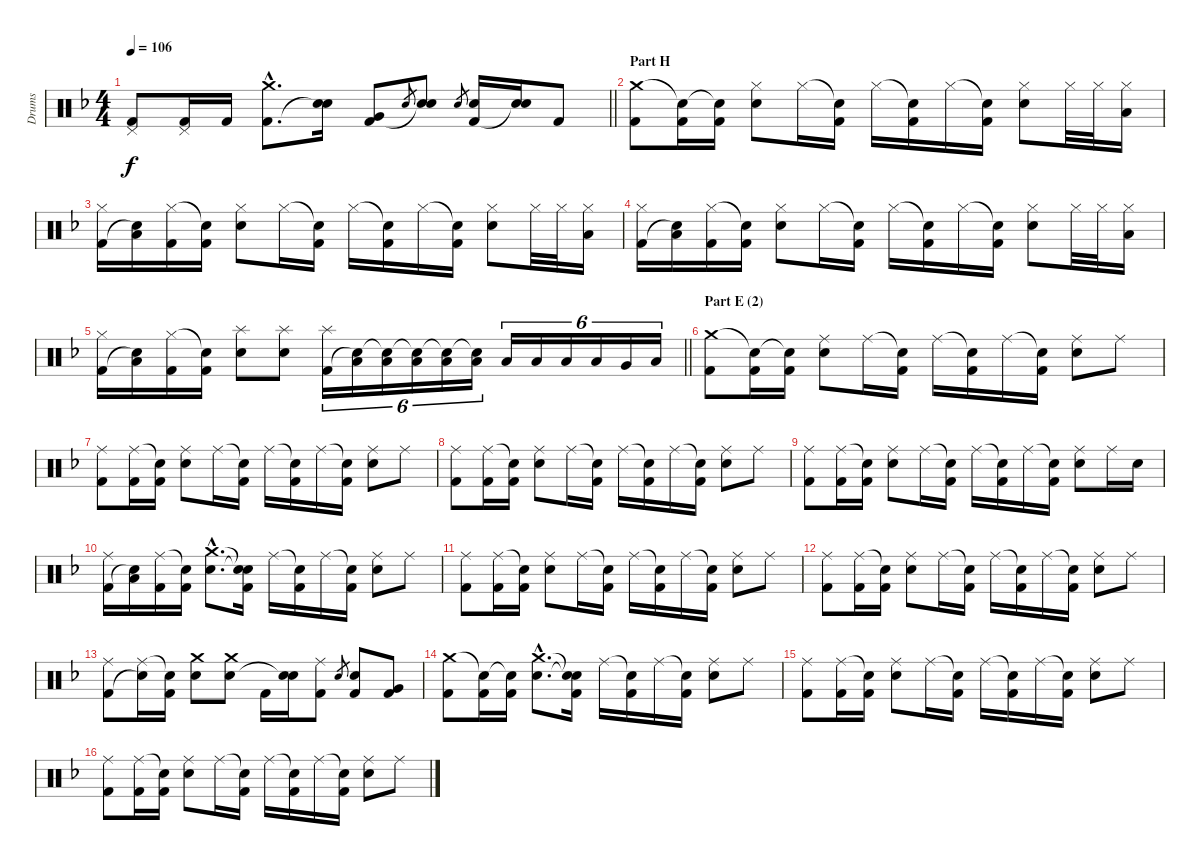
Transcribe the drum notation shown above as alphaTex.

\track ("Drums" "Drums") {instrument percussion}
\staff {score}
\articulation defaults
\ts (4 4)
\tempo 106
\clef neutral
\barLineRight lightlight
\ks f
("Pedal Hi-Hat (hit)" "Kick (hit) 2").8{dy f} ("Pedal Hi-Hat (hit)" "Kick (hit) 2").16 "Kick (hit) 2".16 ("Crash medium (hit)"{hac} "Kick (hit) 2"{hac}).8{d} ("Electric Snare (hit)" "Snare (hit)"{t}).16 ("Very Low Tom (hit)" "Kick (hit) 2").8 "Electric Snare (hit)".8{gr} ("Electric Snare (hit)" "Snare (hit)"{t}).8 "Electric Snare (hit)".8{gr} ("Electric Snare (hit)" "Kick (hit) 2").16 ("Electric Snare (hit)" "Snare (hit)"{t}).16 "Kick (hit) 2".8 |
\section ("" "Part H")
("Crash medium (hit)" "Kick (hit) 2").8 ("Snare (hit)"{t} "Kick (hit) 2").16 ("Snare (hit)"{t} "Kick (hit) 2").16 ("Hi-Hat (closed)" "Electric Snare (hit)").8 "Hi-Hat (closed)".16 ("Snare (hit)"{t} "Kick (hit) 2").16 "Hi-Hat (closed)".16 ("Snare (hit)"{t} "Kick (hit) 2").16 "Hi-Hat (closed)".16 ("Snare (hit)"{t} "Kick (hit) 2").16 ("Hi-Hat (closed)" "Electric Snare (hit)").8 "Hi-Hat (closed)".32 "Hi-Hat (closed)".32 ("Hi-Hat (closed)" "Low Tom (hit)").16 |
("Hi-Hat (closed)" "Kick (hit) 2").16 ("Low Tom (hit)" "Snare (hit)"{t}).16 ("Hi-Hat (closed)" "Kick (hit) 2").16 ("Snare (hit)"{t} "Kick (hit) 2").16 ("Hi-Hat (closed)" "Electric Snare (hit)").8 "Hi-Hat (closed)".16 ("Snare (hit)"{t} "Kick (hit) 2").16 "Hi-Hat (closed)".16 ("Snare (hit)"{t} "Kick (hit) 2").16 "Hi-Hat (closed)".16 ("Snare (hit)"{t} "Kick (hit) 2").16 ("Hi-Hat (closed)" "Electric Snare (hit)").8 "Hi-Hat (closed)".32 "Hi-Hat (closed)".32 ("Hi-Hat (closed)" "Low Tom (hit)").16 |
("Hi-Hat (closed)" "Kick (hit) 2").16 ("Low Tom (hit)" "Snare (hit)"{t}).16 ("Hi-Hat (closed)" "Kick (hit) 2").16 ("Snare (hit)"{t} "Kick (hit) 2").16 ("Hi-Hat (closed)" "Electric Snare (hit)").8 "Hi-Hat (closed)".16 ("Snare (hit)"{t} "Kick (hit) 2").16 "Hi-Hat (closed)".16 ("Snare (hit)"{t} "Kick (hit) 2").16 "Hi-Hat (closed)".16 ("Snare (hit)"{t} "Kick (hit) 2").16 ("Hi-Hat (closed)" "Electric Snare (hit)").8 "Hi-Hat (closed)".32 "Hi-Hat (closed)".32 ("Hi-Hat (closed)" "Low Tom (hit)").16 |
\barLineRight lightlight
("Hi-Hat (closed)" "Kick (hit) 2").16 ("Low Tom (hit)" "Snare (hit)"{t}).16 ("Hi-Hat (closed)" "Kick (hit) 2").16 ("Snare (hit)"{t} "Kick (hit) 2").16 ("Splash (hit)" "Electric Snare (hit)").8 ("Splash (hit)" "Electric Snare (hit)").8 ("Splash (hit)" "Kick (hit) 2").16{tu (6 4)} ("Low Tom (hit)" "Snare (hit)"{t}).16{tu (6 4)} ("Low Tom (hit)" "Snare (hit)"{t}).16{tu (6 4)} ("Low Tom (hit)" "Snare (hit)"{t}).16{tu (6 4)} ("Low Tom (hit)" "Snare (hit)"{t}).16{tu (6 4)} ("Low Tom (hit)" "Snare (hit)"{t}).16{tu (6 4)} "Low Tom (hit)".16{tu (6 4)} "Low Tom (hit)".16{tu (6 4)} "Low Tom (hit)".16{tu (6 4)} "Low Tom (hit)".16{tu (6 4)} "Very Low Tom (hit)".16{tu (6 4)} "Low Floor Tom (hit)".16{tu (6 4)} |
\section ("" "Part E (2)")
("Crash medium (hit)" "Kick (hit) 2").8 ("Snare (hit)"{t} "Kick (hit) 2").16 ("Snare (hit)"{t} "Kick (hit) 2").16 ("Ride (middle)" "Electric Snare (hit)").8 "Ride (middle)".16 ("Snare (hit)"{t} "Kick (hit) 2").16 "Ride (middle)".16 ("Snare (hit)"{t} "Kick (hit) 2").16 "Ride (middle)".16 ("Snare (hit)"{t} "Kick (hit) 2").16 ("Ride (middle)" "Electric Snare (hit)").8 "Ride (middle)".8 |
("Ride (middle)" "Kick (hit) 2").8 ("Ride (middle)" "Kick (hit) 2").16 ("Snare (hit)"{t} "Kick (hit) 2").16 ("Ride (middle)" "Electric Snare (hit)").8 "Ride (middle)".16 ("Snare (hit)"{t} "Kick (hit) 2").16 "Ride (middle)".16 ("Snare (hit)"{t} "Kick (hit) 2").16 "Ride (middle)".16 ("Snare (hit)"{t} "Kick (hit) 2").16 ("Ride (middle)" "Electric Snare (hit)").8 "Ride (middle)".8 |
("Ride (middle)" "Kick (hit) 2").8 ("Ride (middle)" "Kick (hit) 2").16 ("Snare (hit)"{t} "Kick (hit) 2").16 ("Ride (middle)" "Electric Snare (hit)").8 "Ride (middle)".16 ("Snare (hit)"{t} "Kick (hit) 2").16 "Ride (middle)".16 ("Snare (hit)"{t} "Kick (hit) 2").16 "Ride (middle)".16 ("Snare (hit)"{t} "Kick (hit) 2").16 ("Ride (middle)" "Electric Snare (hit)").8 "Ride (middle)".8 |
("Ride (middle)" "Kick (hit) 2").8 ("Ride (middle)" "Kick (hit) 2").16 ("Snare (hit)"{t} "Kick (hit) 2").16 ("Ride (middle)" "Electric Snare (hit)").8 "Ride (middle)".16 ("Snare (hit)"{t} "Kick (hit) 2").16 "Ride (middle)".16 ("Snare (hit)"{t} "Kick (hit) 2").16 "Ride (middle)".16 ("Snare (hit)"{t} "Kick (hit) 2").16 ("Ride (middle)" "Electric Snare (hit)").8 "Ride (middle)".16 "Electric Snare (hit)".16 |
("Ride (middle)" "Kick (hit) 2").16 ("Low Tom (hit)" "Snare (hit)"{t}).16 ("Ride (middle)" "Kick (hit) 2").16 ("Snare (hit)"{t} "Kick (hit) 2").16 ("Crash medium (hit)"{hac} "Electric Snare (hit)"{hac}).8{d} ("Snare (hit)"{t} "Snare (hit)"{t} "Kick (hit) 2").16 "Ride (middle)".16 ("Snare (hit)"{t} "Kick (hit) 2").16 "Ride (middle)".16 ("Snare (hit)"{t} "Kick (hit) 2").16 ("Ride (middle)" "Electric Snare (hit)").8 "Ride (middle)".8 |
("Ride (middle)" "Kick (hit) 2").8 ("Ride (middle)" "Kick (hit) 2").16 ("Snare (hit)"{t} "Kick (hit) 2").16 ("Ride (middle)" "Electric Snare (hit)").8 "Ride (middle)".16 ("Snare (hit)"{t} "Kick (hit) 2").16 "Ride (middle)".16 ("Snare (hit)"{t} "Kick (hit) 2").16 "Ride (middle)".16 ("Snare (hit)"{t} "Kick (hit) 2").16 ("Ride (middle)" "Electric Snare (hit)").8 "Ride (middle)".8 |
("Ride (middle)" "Kick (hit) 2").8 ("Ride (middle)" "Kick (hit) 2").16 ("Snare (hit)"{t} "Kick (hit) 2").16 ("Ride (middle)" "Electric Snare (hit)").8 "Ride (middle)".16 ("Snare (hit)"{t} "Kick (hit) 2").16 "Ride (middle)".16 ("Snare (hit)"{t} "Kick (hit) 2").16 "Ride (middle)".16 ("Snare (hit)"{t} "Kick (hit) 2").16 ("Ride (middle)" "Electric Snare (hit)").8 "Ride (middle)".8 |
("Ride (middle)" "Kick (hit) 2").8 ("Ride (middle)" "Snare (hit)"{t}).16 ("Snare (hit)"{t} "Kick (hit) 2").16 ("Crash medium (hit)" "Electric Snare (hit)").8 ("Crash medium (hit)" "Electric Snare (hit)").8 "Kick (hit) 2".16 ("Electric Snare (hit)" "Snare (hit)"{t}).16 ("Ride (middle)" "Kick (hit) 2").8 "Electric Snare (hit)".8{gr} ("Electric Snare (hit)" "Kick (hit) 2").8 ("Very Low Tom (hit)" "Kick (hit) 2").8 |
("Crash medium (hit)" "Kick (hit) 2").8 ("Snare (hit)"{t} "Kick (hit) 2").16 ("Snare (hit)"{t} "Kick (hit) 2").16 ("Crash medium (hit)"{hac} "Electric Snare (hit)"{hac}).8{d} ("Snare (hit)"{t} "Snare (hit)"{t} "Kick (hit) 2").16 "Ride (middle)".16 ("Snare (hit)"{t} "Kick (hit) 2").16 "Ride (middle)".16 ("Snare (hit)"{t} "Kick (hit) 2").16 ("Ride (middle)" "Electric Snare (hit)").8 "Ride (middle)".8 |
("Ride (middle)" "Kick (hit) 2").8 ("Ride (middle)" "Kick (hit) 2").16 ("Snare (hit)"{t} "Kick (hit) 2").16 ("Ride (middle)" "Electric Snare (hit)").8 "Ride (middle)".16 ("Snare (hit)"{t} "Kick (hit) 2").16 "Ride (middle)".16 ("Snare (hit)"{t} "Kick (hit) 2").16 "Ride (middle)".16 ("Snare (hit)"{t} "Kick (hit) 2").16 ("Ride (middle)" "Electric Snare (hit)").8 "Ride (middle)".8 |
("Ride (middle)" "Kick (hit) 2").8 ("Ride (middle)" "Kick (hit) 2").16 ("Snare (hit)"{t} "Kick (hit) 2").16 ("Ride (middle)" "Electric Snare (hit)").8 "Ride (middle)".16 ("Snare (hit)"{t} "Kick (hit) 2").16 "Ride (middle)".16 ("Snare (hit)"{t} "Kick (hit) 2").16 "Ride (middle)".16 ("Snare (hit)"{t} "Kick (hit) 2").16 ("Ride (middle)" "Electric Snare (hit)").8 "Ride (middle)".8
